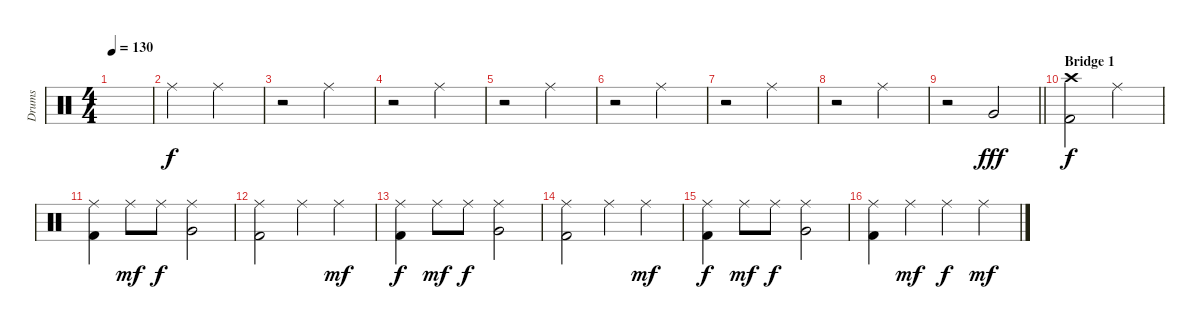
\track ("Drums" "Drums") {instrument percussion}
\staff {score}
\articulation defaults
\ts (4 4)
\tempo 130
\clef neutral
\ks c
|
"Ride (middle)".2 "Ride (middle)".2{dy f} |
r.2 "Ride (middle)".2 |
r.2 "Ride (middle)".2 |
r.2 "Ride (middle)".2 |
r.2 "Ride (middle)".2 |
r.2 "Ride (middle)".2 |
r.2 "Ride (middle)".2 |
\barLineRight lightlight
r.2 "Very Low Tom (hit)".2{dy fff} |
\section ("" "Bridge 1")
("Crash high (hit)" "Kick (hit) 2").2{dy f} "Ride (middle)".2 |
("Ride (middle)" "Kick (hit) 2").4 "Ride (middle)".8{dy mf} "Ride (middle)".8{dy f} ("Ride (middle)" "Very Low Tom (hit)").2 |
("Ride (middle)" "Kick (hit) 2").2 "Ride (middle)".4 "Ride (middle)".4{dy mf} |
("Ride (middle)" "Kick (hit) 2").4{dy f} "Ride (middle)".8{dy mf} "Ride (middle)".8{dy f} ("Ride (middle)" "Very Low Tom (hit)").2 |
("Ride (middle)" "Kick (hit) 2").2 "Ride (middle)".4 "Ride (middle)".4{dy mf} |
("Ride (middle)" "Kick (hit) 2").4{dy f} "Ride (middle)".8{dy mf} "Ride (middle)".8{dy f} ("Ride (middle)" "Very Low Tom (hit)").2 |
("Ride (middle)" "Kick (hit) 2").4 "Ride (middle)".4{dy mf} "Ride (middle)".4{dy f} "Ride (middle)".4{dy mf}
